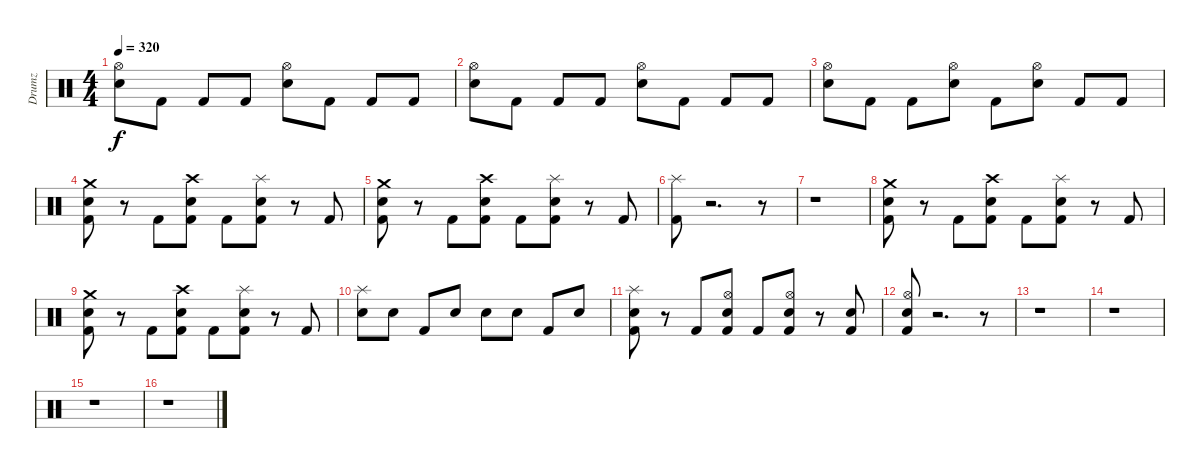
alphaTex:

\track ("Drumz" "Drumz") {instrument percussion}
\staff {score}
\articulation defaults
\ts (4 4)
\tempo 320
\clef neutral
\ks c
("Snare (hit) 2" "Hi-Hat (open)").8{dy f} "Kick (hit) 2".8 "Kick (hit) 2".8 "Kick (hit) 2".8 ("Snare (hit) 2" "Hi-Hat (open)").8 "Kick (hit) 2".8 "Kick (hit) 2".8 "Kick (hit) 2".8 |
("Hi-Hat (open)" "Snare (hit) 2").8 "Kick (hit) 2".8 "Kick (hit) 2".8 "Kick (hit) 2".8 ("Hi-Hat (open)" "Snare (hit) 2").8 "Kick (hit) 2".8 "Kick (hit) 2".8 "Kick (hit) 2".8 |
("Hi-Hat (open)" "Snare (hit) 2").8 "Kick (hit) 2".8 "Kick (hit) 2".8 ("Hi-Hat (open)" "Snare (hit) 2").8 "Kick (hit) 2".8 ("Hi-Hat (open)" "Snare (hit) 2").8 "Kick (hit) 2".8 "Kick (hit) 2".8 |
("Crash medium (hit)" "Snare (hit) 2" "Kick (hit) 2").8 r.8 "Kick (hit) 2".8 ("Crash high (hit)" "Snare (hit) 2" "Kick (hit) 2").8 "Kick (hit) 2".8 ("Splash (hit)" "Snare (hit) 2" "Kick (hit) 2").8 r.8 "Kick (hit) 2".8 |
("Crash medium (hit)" "Snare (hit) 2" "Kick (hit) 2").8 r.8 "Kick (hit) 2".8 ("Crash high (hit)" "Snare (hit) 2" "Kick (hit) 2").8 "Kick (hit) 2".8 ("Splash (hit)" "Snare (hit) 2" "Kick (hit) 2").8 r.8 "Kick (hit) 2".8 |
("Kick (hit) 2" "Splash (hit)").8 r.2{d} r.8 |
r.1 |
("Crash medium (hit)" "Snare (hit) 2" "Kick (hit) 2").8 r.8 "Kick (hit) 2".8 ("Crash high (hit)" "Snare (hit) 2" "Kick (hit) 2").8 "Kick (hit) 2".8 ("Splash (hit)" "Snare (hit) 2" "Kick (hit) 2").8 r.8 "Kick (hit) 2".8 |
("Crash medium (hit)" "Snare (hit) 2" "Kick (hit) 2").8 r.8 "Kick (hit) 2".8 ("Crash high (hit)" "Snare (hit) 2" "Kick (hit) 2").8 "Kick (hit) 2".8 ("Splash (hit)" "Snare (hit) 2" "Kick (hit) 2").8 r.8 "Kick (hit) 2".8 |
("Snare (hit) 2" "Splash (hit)").8 "Snare (hit) 2".8 "Kick (hit) 2".8 "Snare (hit) 2".8 "Snare (hit) 2".8 "Snare (hit) 2".8 "Kick (hit) 2".8 "Snare (hit) 2".8 |
("Snare (hit) 2" "Kick (hit) 2" "Splash (hit)").8 r.8 "Kick (hit) 2".8 ("Snare (hit) 2" "Kick (hit) 2" "Hi-Hat (open)").8 "Kick (hit) 2".8 ("Snare (hit) 2" "Kick (hit) 2" "Hi-Hat (open)").8 r.8 ("Snare (hit) 2" "Kick (hit) 2").8 |
("Snare (hit) 2" "Kick (hit) 2" "Hi-Hat (open)").8 r.2{d} r.8 |
r.1 |
r.1 |
r.1 |
r.1
